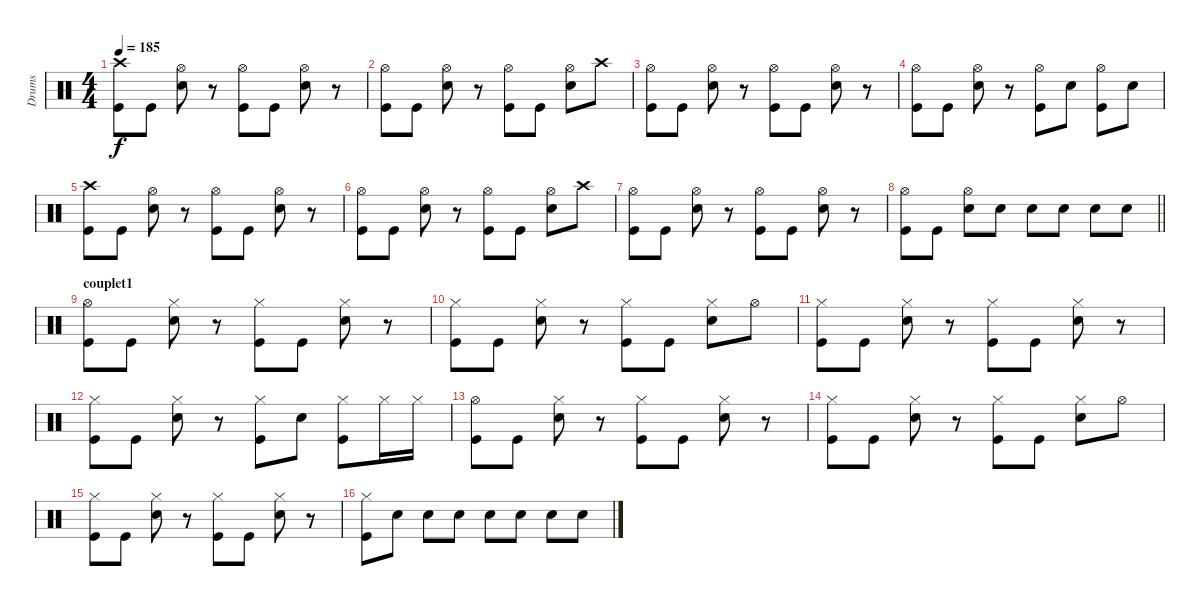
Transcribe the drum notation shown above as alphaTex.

\track ("Drums" "Drums") {instrument percussion}
\staff {score}
\articulation defaults
\ts (4 4)
\tempo 185
\clef neutral
\ks c
("Crash high (hit)" "Kick (hit)").8{dy f} "Kick (hit)".8 ("Hi-Hat (open)" "Electric Snare (hit)").8 r.8 ("Hi-Hat (open)" "Kick (hit)").8 "Kick (hit)".8 ("Hi-Hat (open)" "Electric Snare (hit)").8 r.8 |
("Hi-Hat (open)" "Kick (hit)").8 "Kick (hit)".8 ("Hi-Hat (open)" "Electric Snare (hit)").8 r.8 ("Hi-Hat (open)" "Kick (hit)").8 "Kick (hit)".8 ("Hi-Hat (open)" "Electric Snare (hit)").8 "Crash high (hit)".8 |
("Hi-Hat (open)" "Kick (hit)").8 "Kick (hit)".8 ("Hi-Hat (open)" "Electric Snare (hit)").8 r.8 ("Hi-Hat (open)" "Kick (hit)").8 "Kick (hit)".8 ("Hi-Hat (open)" "Electric Snare (hit)").8 r.8 |
("Hi-Hat (open)" "Kick (hit)").8 "Kick (hit)".8 ("Hi-Hat (open)" "Electric Snare (hit)").8 r.8 ("Hi-Hat (open)" "Kick (hit)").8 "Electric Snare (hit)".8 ("Hi-Hat (open)" "Kick (hit)").8 "Electric Snare (hit)".8 |
("Crash high (hit)" "Kick (hit)").8 "Kick (hit)".8 ("Hi-Hat (open)" "Electric Snare (hit)").8 r.8 ("Hi-Hat (open)" "Kick (hit)").8 "Kick (hit)".8 ("Hi-Hat (open)" "Electric Snare (hit)").8 r.8 |
("Hi-Hat (open)" "Kick (hit)").8 "Kick (hit)".8 ("Hi-Hat (open)" "Electric Snare (hit)").8 r.8 ("Hi-Hat (open)" "Kick (hit)").8 "Kick (hit)".8 ("Hi-Hat (open)" "Electric Snare (hit)").8 "Crash high (hit)".8 |
("Hi-Hat (open)" "Kick (hit)").8 "Kick (hit)".8 ("Hi-Hat (open)" "Electric Snare (hit)").8 r.8 ("Hi-Hat (open)" "Kick (hit)").8 "Kick (hit)".8 ("Hi-Hat (open)" "Electric Snare (hit)").8 r.8 |
\barLineRight lightlight
("Hi-Hat (open)" "Kick (hit)").8 "Kick (hit)".8 ("Hi-Hat (open)" "Electric Snare (hit)").8 "Electric Snare (hit)".8 "Electric Snare (hit)".8 "Electric Snare (hit)".8 "Electric Snare (hit)".8 "Electric Snare (hit)".8 |
\section ("" "couplet1")
("Hi-Hat (open)" "Kick (hit)").8 "Kick (hit)".8 ("Hi-Hat (closed)" "Electric Snare (hit)").8 r.8 ("Hi-Hat (closed)" "Kick (hit)").8 "Kick (hit)".8 ("Hi-Hat (closed)" "Electric Snare (hit)").8 r.8 |
("Hi-Hat (closed)" "Kick (hit)").8 "Kick (hit)".8 ("Hi-Hat (closed)" "Electric Snare (hit)").8 r.8 ("Hi-Hat (closed)" "Kick (hit)").8 "Kick (hit)".8 ("Hi-Hat (closed)" "Electric Snare (hit)").8 "Hi-Hat (open)".8 |
("Hi-Hat (closed)" "Kick (hit)").8 "Kick (hit)".8 ("Hi-Hat (closed)" "Electric Snare (hit)").8 r.8 ("Hi-Hat (closed)" "Kick (hit)").8 "Kick (hit)".8 ("Hi-Hat (closed)" "Electric Snare (hit)").8 r.8 |
("Hi-Hat (closed)" "Kick (hit)").8 "Kick (hit)".8 ("Hi-Hat (closed)" "Electric Snare (hit)").8 r.8 ("Hi-Hat (closed)" "Kick (hit)").8 "Electric Snare (hit)".8 ("Hi-Hat (closed)" "Kick (hit)").8 "Hi-Hat (closed)".16 "Hi-Hat (closed)".16 |
("Hi-Hat (open)" "Kick (hit)").8 "Kick (hit)".8 ("Hi-Hat (closed)" "Electric Snare (hit)").8 r.8 ("Hi-Hat (closed)" "Kick (hit)").8 "Kick (hit)".8 ("Hi-Hat (closed)" "Electric Snare (hit)").8 r.8 |
("Hi-Hat (closed)" "Kick (hit)").8 "Kick (hit)".8 ("Hi-Hat (closed)" "Electric Snare (hit)").8 r.8 ("Hi-Hat (closed)" "Kick (hit)").8 "Kick (hit)".8 ("Hi-Hat (closed)" "Electric Snare (hit)").8 "Hi-Hat (open)".8 |
("Hi-Hat (closed)" "Kick (hit)").8 "Kick (hit)".8 ("Hi-Hat (closed)" "Electric Snare (hit)").8 r.8 ("Hi-Hat (closed)" "Kick (hit)").8 "Kick (hit)".8 ("Hi-Hat (closed)" "Electric Snare (hit)").8 r.8 |
("Hi-Hat (closed)" "Kick (hit)").8 "Electric Snare (hit)".8 "Electric Snare (hit)".8 "Electric Snare (hit)".8 "Electric Snare (hit)".8 "Electric Snare (hit)".8 "Electric Snare (hit)".8 "Electric Snare (hit)".8
